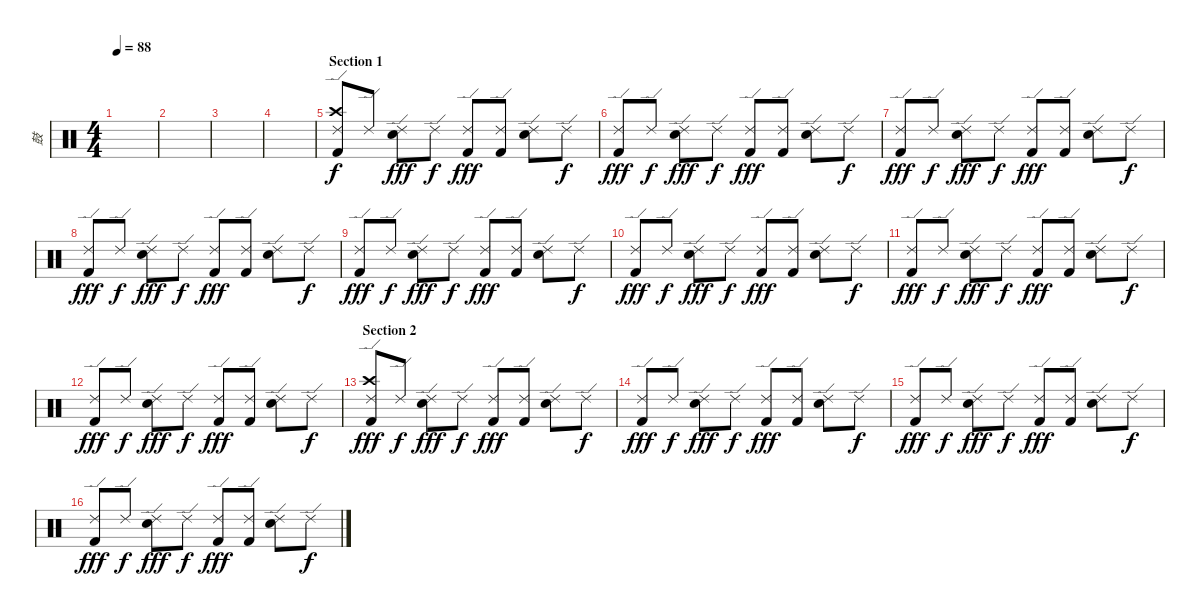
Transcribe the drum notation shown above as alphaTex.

\track ("鼓" "鼓") {instrument percussion}
\staff {score}
\articulation defaults
\ts (4 4)
\tempo 88
\clef neutral
\ks c
|
|
|
|
\section ("" "Section 1")
("Ride (edge) 2" "Crash high (hit)" "Kick (hit) 2").8 "Ride (edge) 2".8{dy f} ("Ride (edge) 2" "Snare (hit) 2").8{dy fff} "Ride (edge) 2".8{dy f} ("Ride (edge) 2" "Kick (hit) 2").8{dy fff} ("Ride (edge) 2" "Kick (hit) 2").8 ("Ride (edge) 2" "Snare (hit) 2").8 "Ride (edge) 2".8{dy f} |
("Ride (edge) 2" "Kick (hit) 2").8{dy fff} "Ride (edge) 2".8{dy f} ("Ride (edge) 2" "Snare (hit) 2").8{dy fff} "Ride (edge) 2".8{dy f} ("Ride (edge) 2" "Kick (hit) 2").8{dy fff} ("Ride (edge) 2" "Kick (hit) 2").8 ("Ride (edge) 2" "Snare (hit) 2").8 "Ride (edge) 2".8{dy f} |
("Ride (edge) 2" "Kick (hit) 2").8{dy fff} "Ride (edge) 2".8{dy f} ("Ride (edge) 2" "Snare (hit) 2").8{dy fff} "Ride (edge) 2".8{dy f} ("Ride (edge) 2" "Kick (hit) 2").8{dy fff} ("Ride (edge) 2" "Kick (hit) 2").8 ("Ride (edge) 2" "Snare (hit) 2").8 "Ride (edge) 2".8{dy f} |
("Ride (edge) 2" "Kick (hit) 2").8{dy fff} "Ride (edge) 2".8{dy f} ("Ride (edge) 2" "Snare (hit) 2").8{dy fff} "Ride (edge) 2".8{dy f} ("Ride (edge) 2" "Kick (hit) 2").8{dy fff} ("Ride (edge) 2" "Kick (hit) 2").8 ("Ride (edge) 2" "Snare (hit) 2").8 "Ride (edge) 2".8{dy f} |
("Ride (edge) 2" "Kick (hit) 2").8{dy fff} "Ride (edge) 2".8{dy f} ("Ride (edge) 2" "Snare (hit) 2").8{dy fff} "Ride (edge) 2".8{dy f} ("Ride (edge) 2" "Kick (hit) 2").8{dy fff} ("Ride (edge) 2" "Kick (hit) 2").8 ("Ride (edge) 2" "Snare (hit) 2").8 "Ride (edge) 2".8{dy f} |
("Ride (edge) 2" "Kick (hit) 2").8{dy fff} "Ride (edge) 2".8{dy f} ("Ride (edge) 2" "Snare (hit) 2").8{dy fff} "Ride (edge) 2".8{dy f} ("Ride (edge) 2" "Kick (hit) 2").8{dy fff} ("Ride (edge) 2" "Kick (hit) 2").8 ("Ride (edge) 2" "Snare (hit) 2").8 "Ride (edge) 2".8{dy f} |
("Ride (edge) 2" "Kick (hit) 2").8{dy fff} "Ride (edge) 2".8{dy f} ("Ride (edge) 2" "Snare (hit) 2").8{dy fff} "Ride (edge) 2".8{dy f} ("Ride (edge) 2" "Kick (hit) 2").8{dy fff} ("Ride (edge) 2" "Kick (hit) 2").8 ("Ride (edge) 2" "Snare (hit) 2").8 "Ride (edge) 2".8{dy f} |
("Ride (edge) 2" "Kick (hit) 2").8{dy fff} "Ride (edge) 2".8{dy f} ("Ride (edge) 2" "Snare (hit) 2").8{dy fff} "Ride (edge) 2".8{dy f} ("Ride (edge) 2" "Kick (hit) 2").8{dy fff} ("Ride (edge) 2" "Kick (hit) 2").8 ("Ride (edge) 2" "Snare (hit) 2").8 "Ride (edge) 2".8{dy f} |
\section ("" "Section 2")
("Ride (edge) 2" "Crash high (hit)" "Kick (hit) 2").8{dy fff} "Ride (edge) 2".8{dy f} ("Ride (edge) 2" "Snare (hit) 2").8{dy fff} "Ride (edge) 2".8{dy f} ("Ride (edge) 2" "Kick (hit) 2").8{dy fff} ("Ride (edge) 2" "Kick (hit) 2").8 ("Ride (edge) 2" "Snare (hit) 2").8 "Ride (edge) 2".8{dy f} |
("Ride (edge) 2" "Kick (hit) 2").8{dy fff} "Ride (edge) 2".8{dy f} ("Ride (edge) 2" "Snare (hit) 2").8{dy fff} "Ride (edge) 2".8{dy f} ("Ride (edge) 2" "Kick (hit) 2").8{dy fff} ("Ride (edge) 2" "Kick (hit) 2").8 ("Ride (edge) 2" "Snare (hit) 2").8 "Ride (edge) 2".8{dy f} |
("Ride (edge) 2" "Kick (hit) 2").8{dy fff} "Ride (edge) 2".8{dy f} ("Ride (edge) 2" "Snare (hit) 2").8{dy fff} "Ride (edge) 2".8{dy f} ("Ride (edge) 2" "Kick (hit) 2").8{dy fff} ("Ride (edge) 2" "Kick (hit) 2").8 ("Ride (edge) 2" "Snare (hit) 2").8 "Ride (edge) 2".8{dy f} |
("Ride (edge) 2" "Kick (hit) 2").8{dy fff} "Ride (edge) 2".8{dy f} ("Ride (edge) 2" "Snare (hit) 2").8{dy fff} "Ride (edge) 2".8{dy f} ("Ride (edge) 2" "Kick (hit) 2").8{dy fff} ("Ride (edge) 2" "Kick (hit) 2").8 ("Ride (edge) 2" "Snare (hit) 2").8 "Ride (edge) 2".8{dy f}
